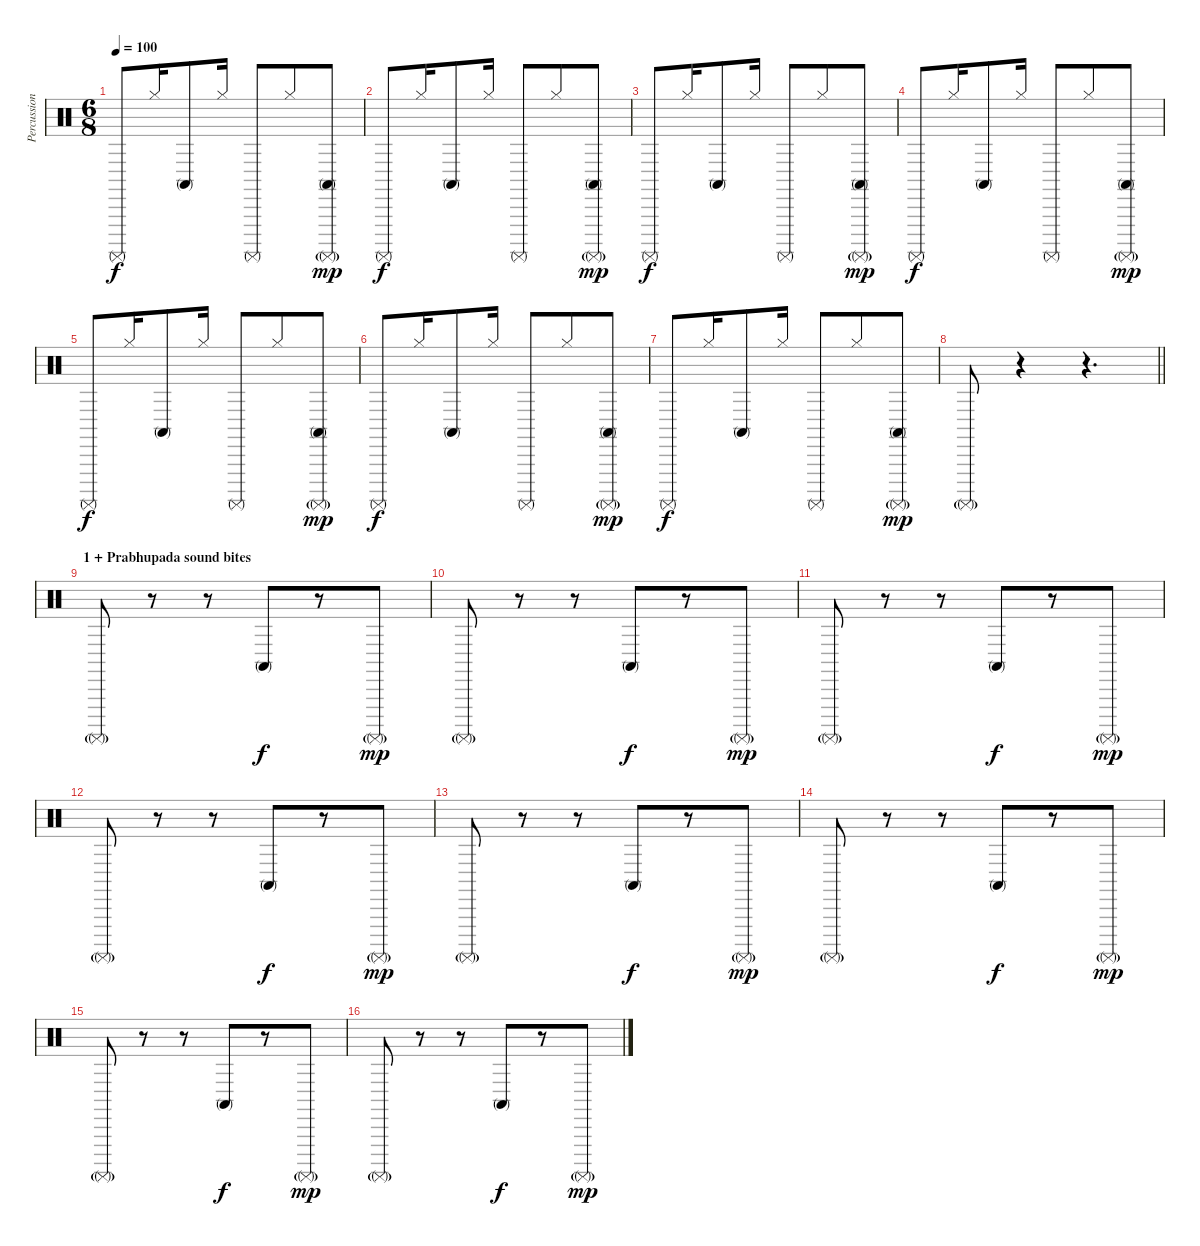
\track ("Percussion" "Percussion") {instrument percussion}
\staff {score}
\articulation defaults
\ts (6 8)
\tempo 100
\clef neutral
\ks c "Surdo (mute)".8{dy f} "Hi-Hat (closed)".16 "Conga high (mute)".8 "Hi-Hat (closed)".16 "Surdo (mute)".8 "Hi-Hat (closed)".8
("Conga high (mute)" "Surdo (mute)"{g}).8{dy mp} |
"Surdo (mute)".8{dy f} "Hi-Hat (closed)".16 "Conga high (mute)".8 "Hi-Hat (closed)".16 "Surdo (mute)".8 "Hi-Hat (closed)".8 ("Conga high (mute)" "Surdo (mute)"{g}).8{dy mp} |
"Surdo (mute)".8{dy f} "Hi-Hat (closed)".16 "Conga high (mute)".8 "Hi-Hat (closed)".16 "Surdo (mute)".8 "Hi-Hat (closed)".8 ("Conga high (mute)" "Surdo (mute)"{g}).8{dy mp} |
"Surdo (mute)".8{dy f} "Hi-Hat (closed)".16 "Conga high (mute)".8 "Hi-Hat (closed)".16 "Surdo (mute)".8 "Hi-Hat (closed)".8 ("Conga high (mute)" "Surdo (mute)"{g}).8{dy mp} |
"Surdo (mute)".8{dy f} "Hi-Hat (closed)".16 "Conga high (mute)".8 "Hi-Hat (closed)".16 "Surdo (mute)".8 "Hi-Hat (closed)".8 ("Conga high (mute)" "Surdo (mute)"{g}).8{dy mp} |
"Surdo (mute)".8{dy f} "Hi-Hat (closed)".16 "Conga high (mute)".8 "Hi-Hat (closed)".16 "Surdo (mute)".8 "Hi-Hat (closed)".8 ("Conga high (mute)" "Surdo (mute)"{g}).8{dy mp} |
"Surdo (mute)".8{dy f} "Hi-Hat (closed)".16 "Conga high (mute)".8 "Hi-Hat (closed)".16 "Surdo (mute)".8 "Hi-Hat (closed)".8 ("Conga high (mute)" "Surdo (mute)"{g}).8{dy mp} |
\barLineRight lightlight "Surdo (mute)"{g}.8
r.4 r.4{d} |
\section ("" "1 + Prabhupada sound bites")
"Surdo (mute)"{g}.8 r.8 r.8 "Conga high (mute)".8{dy f} r.8 "Surdo (mute)"{g}.8{dy mp} |
"Surdo (mute)"{g}.8 r.8 r.8 "Conga high (mute)".8{dy f} r.8 "Surdo (mute)"{g}.8{dy mp} |
"Surdo (mute)"{g}.8 r.8 r.8 "Conga high (mute)".8{dy f} r.8 "Surdo (mute)"{g}.8{dy mp} |
"Surdo (mute)"{g}.8 r.8 r.8 "Conga high (mute)".8{dy f} r.8 "Surdo (mute)"{g}.8{dy mp} |
"Surdo (mute)"{g}.8 r.8 r.8 "Conga high (mute)".8{dy f} r.8 "Surdo (mute)"{g}.8{dy mp} |
"Surdo (mute)"{g}.8 r.8 r.8 "Conga high (mute)".8{dy f} r.8 "Surdo (mute)"{g}.8{dy mp} |
"Surdo (mute)"{g}.8 r.8 r.8 "Conga high (mute)".8{dy f} r.8 "Surdo (mute)"{g}.8{dy mp} |
"Surdo (mute)"{g}.8 r.8 r.8 "Conga high (mute)".8{dy f} r.8 "Surdo (mute)"{g}.8{dy mp}
